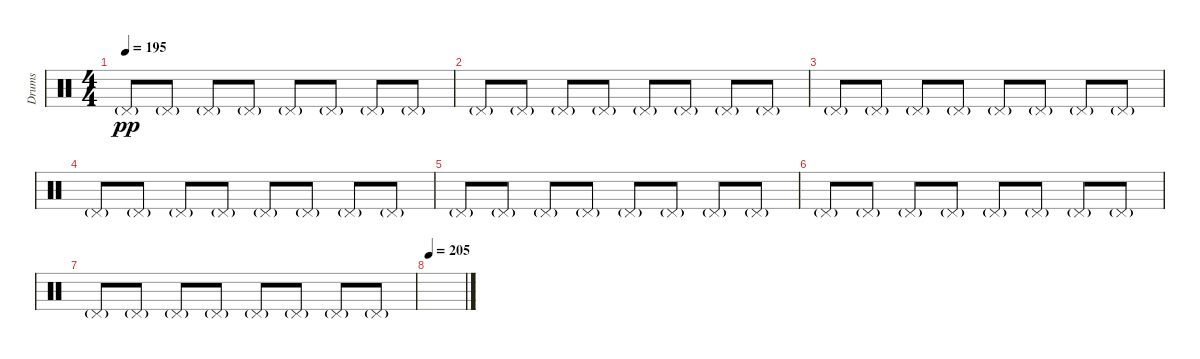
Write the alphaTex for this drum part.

\track ("Drums" "Drums") {instrument percussion}
\staff {score}
\articulation defaults
\ts (4 4)
\tempo 195
\clef neutral
\ks c "Pedal Hi-Hat (hit)"{g}.8{dy pp} "Pedal Hi-Hat (hit)"{g}.8 "Pedal Hi-Hat (hit)"{g}.8 "Pedal Hi-Hat (hit)"{g}.8 "Pedal Hi-Hat (hit)"{g}.8 "Pedal Hi-Hat (hit)"{g}.8 "Pedal Hi-Hat (hit)"{g}.8 "Pedal Hi-Hat (hit)"{g}.8
|
"Pedal Hi-Hat (hit)"{g}.8 "Pedal Hi-Hat (hit)"{g}.8 "Pedal Hi-Hat (hit)"{g}.8 "Pedal Hi-Hat (hit)"{g}.8 "Pedal Hi-Hat (hit)"{g}.8 "Pedal Hi-Hat (hit)"{g}.8 "Pedal Hi-Hat (hit)"{g}.8 "Pedal Hi-Hat (hit)"{g}.8 |
"Pedal Hi-Hat (hit)"{g}.8 "Pedal Hi-Hat (hit)"{g}.8 "Pedal Hi-Hat (hit)"{g}.8 "Pedal Hi-Hat (hit)"{g}.8 "Pedal Hi-Hat (hit)"{g}.8 "Pedal Hi-Hat (hit)"{g}.8 "Pedal Hi-Hat (hit)"{g}.8 "Pedal Hi-Hat (hit)"{g}.8 |
"Pedal Hi-Hat (hit)"{g}.8 "Pedal Hi-Hat (hit)"{g}.8 "Pedal Hi-Hat (hit)"{g}.8 "Pedal Hi-Hat (hit)"{g}.8 "Pedal Hi-Hat (hit)"{g}.8 "Pedal Hi-Hat (hit)"{g}.8 "Pedal Hi-Hat (hit)"{g}.8 "Pedal Hi-Hat (hit)"{g}.8 |
"Pedal Hi-Hat (hit)"{g}.8 "Pedal Hi-Hat (hit)"{g}.8 "Pedal Hi-Hat (hit)"{g}.8 "Pedal Hi-Hat (hit)"{g}.8 "Pedal Hi-Hat (hit)"{g}.8 "Pedal Hi-Hat (hit)"{g}.8 "Pedal Hi-Hat (hit)"{g}.8 "Pedal Hi-Hat (hit)"{g}.8 |
"Pedal Hi-Hat (hit)"{g}.8 "Pedal Hi-Hat (hit)"{g}.8 "Pedal Hi-Hat (hit)"{g}.8 "Pedal Hi-Hat (hit)"{g}.8 "Pedal Hi-Hat (hit)"{g}.8 "Pedal Hi-Hat (hit)"{g}.8 "Pedal Hi-Hat (hit)"{g}.8 "Pedal Hi-Hat (hit)"{g}.8 |
"Pedal Hi-Hat (hit)"{g}.8 "Pedal Hi-Hat (hit)"{g}.8 "Pedal Hi-Hat (hit)"{g}.8 "Pedal Hi-Hat (hit)"{g}.8 "Pedal Hi-Hat (hit)"{g}.8 "Pedal Hi-Hat (hit)"{g}.8 "Pedal Hi-Hat (hit)"{g}.8 "Pedal Hi-Hat (hit)"{g}.8 |
\tempo 205
